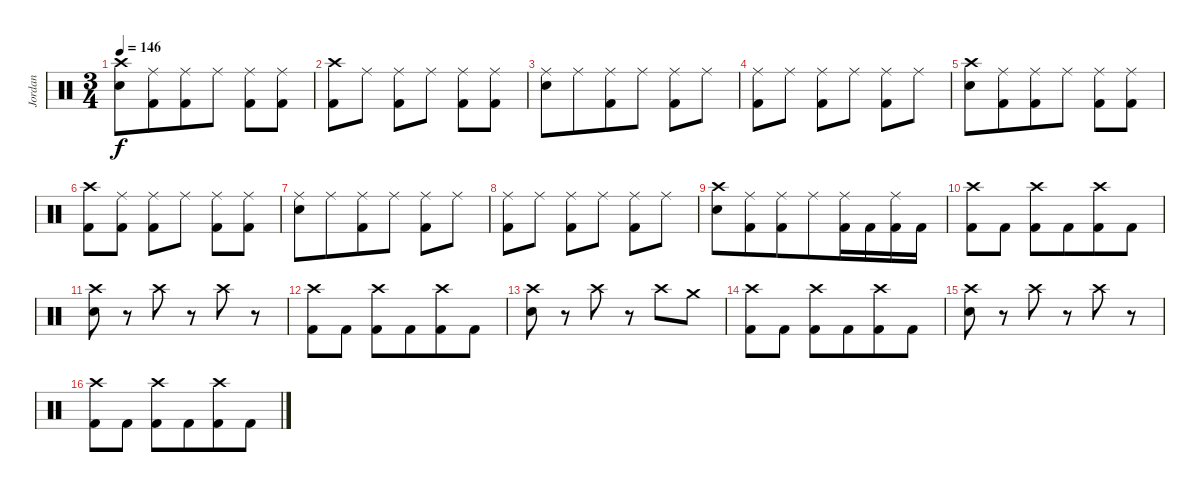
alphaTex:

\track ("Jordan" "Jordan") {instrument percussion}
\staff {score}
\articulation defaults
\ts (3 4)
\tempo 146
\clef neutral
\ks c
("Snare (hit) 2" "Crash high (hit)").8{dy f beam merge} ("Ride (middle)" "Kick (hit) 2").8{beam merge} ("Ride (middle)" "Kick (hit) 2").8 "Ride (middle)".8 ("Ride (middle)" "Kick (hit) 2").8{beam merge} ("Ride (middle)" "Kick (hit) 2").8 |
("Crash high (hit)" "Kick (hit) 2").8{beam merge} "Ride (middle)".8 ("Ride (middle)" "Kick (hit) 2").8 "Ride (middle)".8 ("Ride (middle)" "Kick (hit) 2").8{beam merge} ("Ride (middle)" "Kick (hit) 2").8 |
("Snare (hit) 2" "Ride (middle)").8{beam merge} "Ride (middle)".8{beam merge} ("Ride (middle)" "Kick (hit) 2").8 "Ride (middle)".8 ("Ride (middle)" "Kick (hit) 2").8{beam merge} "Ride (middle)".8 |
("Ride (middle)" "Kick (hit) 2").8{beam merge} "Ride (middle)".8 ("Ride (middle)" "Kick (hit) 2").8 "Ride (middle)".8 ("Ride (middle)" "Kick (hit) 2").8{beam merge} "Ride (middle)".8 |
("Snare (hit) 2" "Crash high (hit)").8{beam merge} ("Ride (middle)" "Kick (hit) 2").8{beam merge} ("Ride (middle)" "Kick (hit) 2").8 "Ride (middle)".8 ("Ride (middle)" "Kick (hit) 2").8{beam merge} ("Ride (middle)" "Kick (hit) 2").8 |
("Crash high (hit)" "Kick (hit) 2").8{beam merge} ("Ride (middle)" "Kick (hit) 2").8 ("Ride (middle)" "Kick (hit) 2").8 "Ride (middle)".8 ("Ride (middle)" "Kick (hit) 2").8{beam merge} ("Ride (middle)" "Kick (hit) 2").8 |
("Snare (hit) 2" "Ride (middle)").8{beam merge} "Ride (middle)".8{beam merge} ("Ride (middle)" "Kick (hit) 2").8 "Ride (middle)".8 ("Ride (middle)" "Kick (hit) 2").8{beam merge} "Ride (middle)".8 |
("Ride (middle)" "Kick (hit) 2").8{beam merge} "Ride (middle)".8 ("Ride (middle)" "Kick (hit) 2").8 "Ride (middle)".8 ("Ride (middle)" "Kick (hit) 2").8{beam merge} "Ride (middle)".8 |
("Snare (hit) 2" "Crash high (hit)").8{beam merge} ("Ride (middle)" "Kick (hit) 2").8{beam merge} ("Ride (middle)" "Kick (hit) 2").8 "Ride (middle)".8{beam merge} ("Ride (middle)" "Kick (hit) 2").16 "Kick (hit) 2".16 ("Ride (middle)" "Kick (hit) 2").16 "Kick (hit) 2".16 |
("Crash high (hit)" "Kick (hit) 2").8 "Kick (hit) 2".8 ("Crash high (hit)" "Kick (hit) 2").8 "Kick (hit) 2".8{beam merge} ("Crash high (hit)" "Kick (hit) 2").8{beam merge} "Kick (hit) 2".8 |
("Crash high (hit)" "Snare (hit) 2").8 r.8 "Crash high (hit)".8 r.8{beam merge} "Crash high (hit)".8 r.8 |
("Crash high (hit)" "Kick (hit) 2").8 "Kick (hit) 2".8 ("Crash high (hit)" "Kick (hit) 2").8 "Kick (hit) 2".8{beam merge} ("Crash high (hit)" "Kick (hit) 2").8{beam merge} "Kick (hit) 2".8 |
("Crash high (hit)" "Snare (hit) 2").8 r.8 "Crash high (hit)".8 r.8{beam merge} "Crash high (hit)".8{beam merge} "Crash medium (hit)".8 |
("Crash high (hit)" "Kick (hit) 2").8 "Kick (hit) 2".8 ("Crash high (hit)" "Kick (hit) 2").8 "Kick (hit) 2".8{beam merge} ("Crash high (hit)" "Kick (hit) 2").8{beam merge} "Kick (hit) 2".8 |
("Crash high (hit)" "Snare (hit) 2").8 r.8 "Crash high (hit)".8 r.8{beam merge} "Crash high (hit)".8 r.8 |
("Crash high (hit)" "Kick (hit) 2").8 "Kick (hit) 2".8 ("Crash high (hit)" "Kick (hit) 2").8 "Kick (hit) 2".8{beam merge} ("Crash high (hit)" "Kick (hit) 2").8{beam merge} "Kick (hit) 2".8
